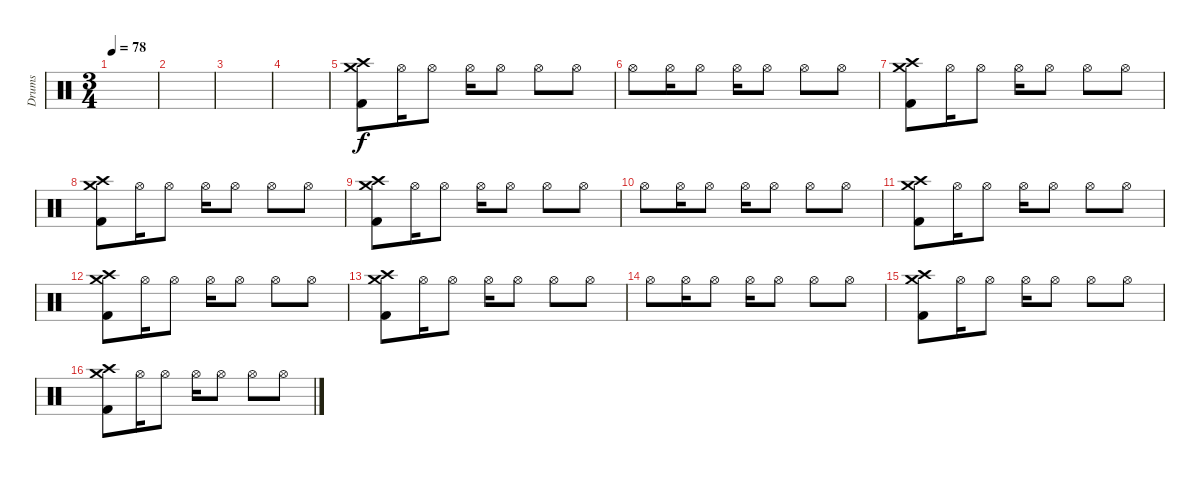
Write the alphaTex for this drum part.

\track ("Drums" "Drums") {instrument percussion}
\staff {score}
\articulation defaults
\ts (3 4)
\tempo 78
\clef neutral
\ks c
|
|
|
|
("Crash medium (hit)" "Crash high (hit)" "Kick (hit) 2").8 "Hi-Hat (open)".16 "Hi-Hat (open)".8 "Hi-Hat (open)".16 "Hi-Hat (open)".8 "Hi-Hat (open)".8 "Hi-Hat (open)".8 |
"Hi-Hat (open)".8 "Hi-Hat (open)".16 "Hi-Hat (open)".8 "Hi-Hat (open)".16 "Hi-Hat (open)".8 "Hi-Hat (open)".8 "Hi-Hat (open)".8 |
("Crash medium (hit)" "Crash high (hit)" "Kick (hit) 2").8 "Hi-Hat (open)".16 "Hi-Hat (open)".8 "Hi-Hat (open)".16 "Hi-Hat (open)".8 "Hi-Hat (open)".8 "Hi-Hat (open)".8 |
("Crash medium (hit)" "Crash high (hit)" "Kick (hit) 2").8 "Hi-Hat (open)".16 "Hi-Hat (open)".8 "Hi-Hat (open)".16 "Hi-Hat (open)".8 "Hi-Hat (open)".8 "Hi-Hat (open)".8 |
("Crash medium (hit)" "Crash high (hit)" "Kick (hit) 2").8 "Hi-Hat (open)".16 "Hi-Hat (open)".8 "Hi-Hat (open)".16 "Hi-Hat (open)".8 "Hi-Hat (open)".8 "Hi-Hat (open)".8 |
"Hi-Hat (open)".8 "Hi-Hat (open)".16 "Hi-Hat (open)".8 "Hi-Hat (open)".16 "Hi-Hat (open)".8 "Hi-Hat (open)".8 "Hi-Hat (open)".8 |
("Crash medium (hit)" "Crash high (hit)" "Kick (hit) 2").8 "Hi-Hat (open)".16 "Hi-Hat (open)".8 "Hi-Hat (open)".16 "Hi-Hat (open)".8 "Hi-Hat (open)".8 "Hi-Hat (open)".8 |
("Crash medium (hit)" "Crash high (hit)" "Kick (hit) 2").8 "Hi-Hat (open)".16 "Hi-Hat (open)".8 "Hi-Hat (open)".16 "Hi-Hat (open)".8 "Hi-Hat (open)".8 "Hi-Hat (open)".8 |
("Crash medium (hit)" "Crash high (hit)" "Kick (hit) 2").8 "Hi-Hat (open)".16 "Hi-Hat (open)".8 "Hi-Hat (open)".16 "Hi-Hat (open)".8 "Hi-Hat (open)".8 "Hi-Hat (open)".8 |
"Hi-Hat (open)".8 "Hi-Hat (open)".16 "Hi-Hat (open)".8 "Hi-Hat (open)".16 "Hi-Hat (open)".8 "Hi-Hat (open)".8 "Hi-Hat (open)".8 |
("Crash medium (hit)" "Crash high (hit)" "Kick (hit) 2").8 "Hi-Hat (open)".16 "Hi-Hat (open)".8 "Hi-Hat (open)".16 "Hi-Hat (open)".8 "Hi-Hat (open)".8 "Hi-Hat (open)".8 |
("Crash medium (hit)" "Crash high (hit)" "Kick (hit) 2").8 "Hi-Hat (open)".16 "Hi-Hat (open)".8 "Hi-Hat (open)".16 "Hi-Hat (open)".8 "Hi-Hat (open)".8 "Hi-Hat (open)".8
